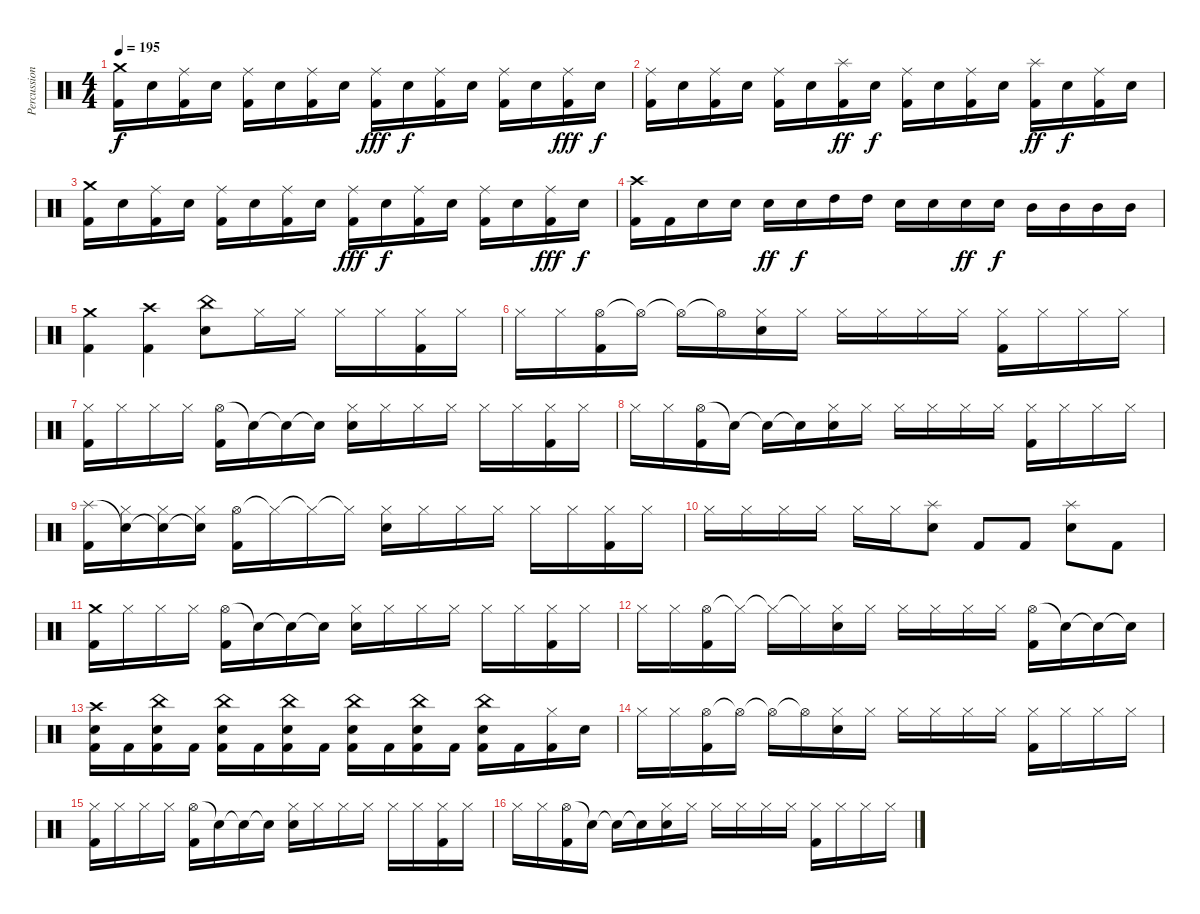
\track ("Percussion" "Percussion") {instrument percussion}
\staff {score}
\articulation defaults
\ts (4 4)
\tempo 195
\clef neutral
\ks c
("Crash medium (hit)" "Kick (hit) 2").16{dy f} "Snare (hit) 2".16 ("Ride (middle)" "Kick (hit) 2").16 "Snare (hit) 2".16 ("Ride (middle)" "Kick (hit) 2").16 "Snare (hit) 2".16 ("Ride (middle)" "Kick (hit) 2").16 "Snare (hit) 2".16 ("Ride (middle)" "Kick (hit) 2").16{dy fff} "Snare (hit) 2".16{dy f} ("Ride (middle)" "Kick (hit) 2").16 "Snare (hit) 2".16 ("Ride (middle)" "Kick (hit) 2").16 "Snare (hit) 2".16 ("Ride (middle)" "Kick (hit) 2").16{dy fff} "Snare (hit) 2".16{dy f} |
("Ride (middle)" "Kick (hit) 2").16 "Snare (hit) 2".16 ("Ride (middle)" "Kick (hit) 2").16 "Snare (hit) 2".16 ("Ride (middle)" "Kick (hit) 2").16 "Snare (hit) 2".16 ("Splash (hit)" "Kick (hit) 2").16{dy ff} "Snare (hit) 2".16{dy f} ("Ride (middle)" "Kick (hit) 2").16 "Snare (hit) 2".16 ("Ride (middle)" "Kick (hit) 2").16 "Snare (hit) 2".16 ("Splash (hit)" "Kick (hit) 2").16{dy ff} "Snare (hit) 2".16{dy f} ("Ride (middle)" "Kick (hit) 2").16 "Snare (hit) 2".16 |
("Crash medium (hit)" "Kick (hit) 2").16 "Snare (hit) 2".16 ("Ride (middle)" "Kick (hit) 2").16 "Snare (hit) 2".16 ("Ride (middle)" "Kick (hit) 2").16 "Snare (hit) 2".16 ("Ride (middle)" "Kick (hit) 2").16 "Snare (hit) 2".16 ("Ride (middle)" "Kick (hit) 2").16{dy fff} "Snare (hit) 2".16{dy f} ("Ride (middle)" "Kick (hit) 2").16 "Snare (hit) 2".16 ("Ride (middle)" "Kick (hit) 2").16 "Snare (hit) 2".16 ("Ride (middle)" "Kick (hit) 2").16{dy fff} "Snare (hit) 2".16{dy f} |
("Crash high (hit)" "Kick (hit) 2").16 "Kick (hit) 2".16 "Snare (hit) 2".16 "Snare (hit) 2".16 "Snare (hit) 2".16{dy ff} "Snare (hit) 2".16{dy f} "High Tom (hit)".16 "High Tom (hit)".16 "Snare (hit) 2".16 "Snare (hit) 2".16 "Snare (hit) 2".16{dy ff} "Snare (hit) 2".16{dy f} "Mid Tom (hit)".16 "Mid Tom (hit)".16 "Mid Tom (hit)".16 "Mid Tom (hit)".16 |
("Crash medium (hit)" "Kick (hit) 2").4 ("Crash high (hit)" "Kick (hit) 2").4 ("China (hit)" "Snare (hit) 2").8 "Hi-Hat (closed)".16 "Hi-Hat (closed)".16 "Hi-Hat (closed)".16 "Hi-Hat (closed)".16 ("Hi-Hat (closed)" "Kick (hit) 2").16 "Hi-Hat (closed)".16 |
"Hi-Hat (closed)".16 "Hi-Hat (closed)".16 ("Hi-Hat (open)" "Kick (hit) 2").16 "Hi-Hat (open)"{t}.16 "Hi-Hat (open)"{t}.16 "Hi-Hat (open)"{t}.16 ("Hi-Hat (closed)" "Snare (hit) 2").16 "Hi-Hat (closed)".16 "Hi-Hat (closed)".16 "Hi-Hat (closed)".16 "Hi-Hat (closed)".16 "Hi-Hat (closed)".16 ("Hi-Hat (closed)" "Kick (hit) 2").16 "Hi-Hat (closed)".16 "Hi-Hat (closed)".16 "Hi-Hat (closed)".16 |
("Hi-Hat (closed)" "Kick (hit) 2").16 "Hi-Hat (closed)".16 "Hi-Hat (closed)".16 "Hi-Hat (closed)".16 ("Hi-Hat (open)" "Kick (hit) 2").16 "Snare (hit)"{t}.16 "Snare (hit)"{t}.16 "Snare (hit)"{t}.16 ("Hi-Hat (closed)" "Snare (hit) 2").16 "Hi-Hat (closed)".16 "Hi-Hat (closed)".16 "Hi-Hat (closed)".16 "Hi-Hat (closed)".16 "Hi-Hat (closed)".16 ("Hi-Hat (closed)" "Kick (hit) 2").16 "Hi-Hat (closed)".16 |
"Hi-Hat (closed)".16 "Hi-Hat (closed)".16 ("Hi-Hat (open)" "Kick (hit) 2").16 "Snare (hit)"{t}.16 "Snare (hit)"{t}.16 "Snare (hit)"{t}.16 ("Hi-Hat (closed)" "Snare (hit) 2").16 "Hi-Hat (closed)".16 "Hi-Hat (closed)".16 "Hi-Hat (closed)".16 "Hi-Hat (closed)".16 "Hi-Hat (closed)".16 ("Hi-Hat (closed)" "Kick (hit) 2").16 "Hi-Hat (closed)".16 "Hi-Hat (closed)".16 "Hi-Hat (closed)".16 |
("Splash (hit)" "Kick (hit) 2").16 ("Snare (hit)"{t} "Hi-Hat (closed)").16 ("Snare (hit)"{t} "Hi-Hat (closed)").16 ("Snare (hit)"{t} "Hi-Hat (closed)").16 ("Hi-Hat (open)" "Kick (hit) 2").16 "Hi-Hat (closed)"{t}.16 "Hi-Hat (closed)"{t}.16 "Hi-Hat (closed)"{t}.16 ("Hi-Hat (closed)" "Snare (hit) 2").16 "Hi-Hat (closed)".16 "Hi-Hat (closed)".16 "Hi-Hat (closed)".16 "Hi-Hat (closed)".16 "Hi-Hat (closed)".16 ("Hi-Hat (closed)" "Kick (hit) 2").16 "Hi-Hat (closed)".16 |
"Hi-Hat (closed)".16 "Hi-Hat (closed)".16 "Hi-Hat (closed)".16 "Hi-Hat (closed)".16 "Hi-Hat (closed)".16 "Hi-Hat (closed)".16 ("Splash (hit)" "Snare (hit) 2").8 "Kick (hit) 2".8 "Kick (hit) 2".8 ("Splash (hit)" "Snare (hit) 2").8 "Kick (hit) 2".8 |
("Crash medium (hit)" "Kick (hit) 2").16 "Hi-Hat (closed)".16 "Hi-Hat (closed)".16 "Hi-Hat (closed)".16 ("Hi-Hat (open)" "Kick (hit) 2").16 "Snare (hit)"{t}.16 "Snare (hit)"{t}.16 "Snare (hit)"{t}.16 ("Hi-Hat (closed)" "Snare (hit) 2").16 "Hi-Hat (closed)".16 "Hi-Hat (closed)".16 "Hi-Hat (closed)".16 "Hi-Hat (closed)".16 "Hi-Hat (closed)".16 ("Hi-Hat (closed)" "Kick (hit) 2").16 "Hi-Hat (closed)".16 |
"Hi-Hat (closed)".16 "Hi-Hat (closed)".16 ("Hi-Hat (open)" "Kick (hit) 2").16 "Hi-Hat (closed)"{t}.16 "Hi-Hat (closed)"{t}.16 "Hi-Hat (closed)"{t}.16 ("Hi-Hat (closed)" "Snare (hit) 2").16 "Hi-Hat (closed)".16 "Hi-Hat (closed)".16 "Hi-Hat (closed)".16 "Hi-Hat (closed)".16 "Hi-Hat (closed)".16 ("Hi-Hat (open)" "Kick (hit) 2").16 "Snare (hit)"{t}.16 "Snare (hit)"{t}.16 "Snare (hit)"{t}.16 |
("Crash high (hit)" "Snare (hit) 2" "Kick (hit) 2").16 "Kick (hit) 2".16 ("China (hit)" "Snare (hit) 2" "Kick (hit) 2").16 "Kick (hit) 2".16 ("China (hit)" "Snare (hit) 2" "Kick (hit) 2").16 "Kick (hit) 2".16 ("China (hit)" "Snare (hit) 2" "Kick (hit) 2").16 "Kick (hit) 2".16 ("China (hit)" "Snare (hit) 2" "Kick (hit) 2").16 "Kick (hit) 2".16 ("China (hit)" "Snare (hit) 2" "Kick (hit) 2").16 "Kick (hit) 2".16 ("China (hit)" "Snare (hit) 2" "Kick (hit) 2").16 "Kick (hit) 2".16 ("Hi-Hat (closed)" "Kick (hit) 2").16 "Snare (hit)".16 |
"Hi-Hat (closed)".16 "Hi-Hat (closed)".16 ("Hi-Hat (open)" "Kick (hit) 2").16 "Hi-Hat (open)"{t}.16 "Hi-Hat (open)"{t}.16 "Hi-Hat (open)"{t}.16 ("Hi-Hat (closed)" "Snare (hit) 2").16 "Hi-Hat (closed)".16 "Hi-Hat (closed)".16 "Hi-Hat (closed)".16 "Hi-Hat (closed)".16 "Hi-Hat (closed)".16 ("Hi-Hat (closed)" "Kick (hit) 2").16 "Hi-Hat (closed)".16 "Hi-Hat (closed)".16 "Hi-Hat (closed)".16 |
("Hi-Hat (closed)" "Kick (hit) 2").16 "Hi-Hat (closed)".16 "Hi-Hat (closed)".16 "Hi-Hat (closed)".16 ("Hi-Hat (open)" "Kick (hit) 2").16 "Snare (hit)"{t}.16 "Snare (hit)"{t}.16 "Snare (hit)"{t}.16 ("Hi-Hat (closed)" "Snare (hit) 2").16 "Hi-Hat (closed)".16 "Hi-Hat (closed)".16 "Hi-Hat (closed)".16 "Hi-Hat (closed)".16 "Hi-Hat (closed)".16 ("Hi-Hat (closed)" "Kick (hit) 2").16 "Hi-Hat (closed)".16 |
"Hi-Hat (closed)".16 "Hi-Hat (closed)".16 ("Hi-Hat (open)" "Kick (hit) 2").16 "Snare (hit)"{t}.16 "Snare (hit)"{t}.16 "Snare (hit)"{t}.16 ("Hi-Hat (closed)" "Snare (hit) 2").16 "Hi-Hat (closed)".16 "Hi-Hat (closed)".16 "Hi-Hat (closed)".16 "Hi-Hat (closed)".16 "Hi-Hat (closed)".16 ("Hi-Hat (closed)" "Kick (hit) 2").16 "Hi-Hat (closed)".16 "Hi-Hat (closed)".16 "Hi-Hat (closed)".16
